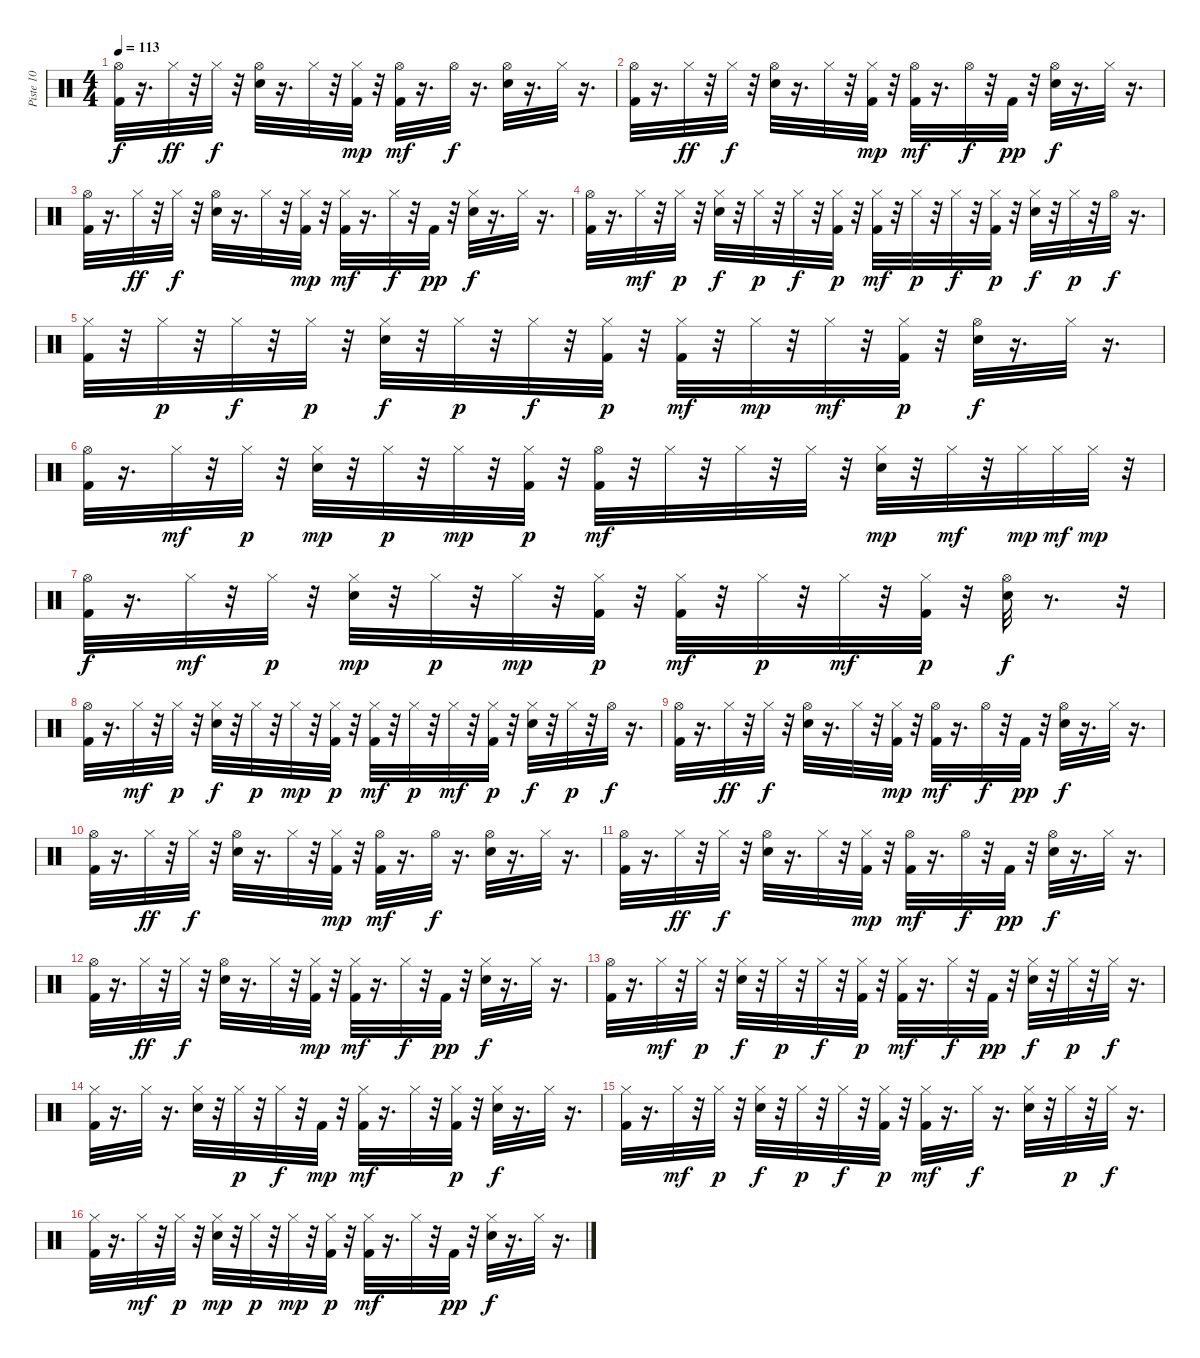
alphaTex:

\track ("Piste 10" "Piste 10") {instrument percussion}
\staff {score}
\articulation defaults
\ts (4 4)
\tempo 113
\clef neutral
\ks c
("Kick (hit) 2" "Hi-Hat (open)").32{dy f} r.16{d} "Hi-Hat (closed)".32{dy ff} r.32 "Hi-Hat (closed)".32{dy f} r.32 ("Electric Snare (hit)" "Hi-Hat (open)").32 r.16{d} "Hi-Hat (closed)".32 r.32 ("Kick (hit) 2" "Hi-Hat (closed)").32{dy mp} r.32 ("Kick (hit) 2" "Hi-Hat (open)").32{dy mf} r.16{d} "Hi-Hat (open)".32{dy f} r.16{d} ("Electric Snare (hit)" "Hi-Hat (open)").32 r.16{d} "Hi-Hat (closed)".32 r.16{d} |
("Kick (hit) 2" "Hi-Hat (open)").32 r.16{d} "Hi-Hat (closed)".32{dy ff} r.32 "Hi-Hat (closed)".32{dy f} r.32 ("Electric Snare (hit)" "Hi-Hat (open)").32 r.16{d} "Hi-Hat (closed)".32 r.32 ("Kick (hit) 2" "Hi-Hat (closed)").32{dy mp} r.32 ("Kick (hit) 2" "Hi-Hat (open)").32{dy mf} r.16{d} "Hi-Hat (open)".32{dy f} r.32 "Kick (hit) 2".32{dy pp} r.32 ("Electric Snare (hit)" "Hi-Hat (open)").32{dy f} r.16{d} "Hi-Hat (closed)".32 r.16{d} |
("Kick (hit) 2" "Hi-Hat (open)").32 r.16{d} "Hi-Hat (closed)".32{dy ff} r.32 "Hi-Hat (closed)".32{dy f} r.32 ("Electric Snare (hit)" "Hi-Hat (open)").32 r.16{d} "Hi-Hat (closed)".32 r.32 ("Kick (hit) 2" "Hi-Hat (closed)").32{dy mp} r.32 ("Kick (hit) 2" "Hi-Hat (closed)").32{dy mf} r.16{d} "Hi-Hat (closed)".32{dy f} r.32 "Kick (hit) 2".32{dy pp} r.32 ("Electric Snare (hit)" "Hi-Hat (closed)").32{dy f} r.16{d} "Hi-Hat (closed)".32 r.16{d} |
("Kick (hit) 2" "Hi-Hat (open)").32 r.16{d} "Hi-Hat (closed)".32{dy mf} r.32 "Hi-Hat (closed)".32{dy p} r.32 ("Electric Snare (hit)" "Hi-Hat (closed)").32{dy f} r.32 "Hi-Hat (closed)".32{dy p} r.32 "Hi-Hat (closed)".32{dy f} r.32 ("Kick (hit) 2" "Hi-Hat (closed)").32{dy p} r.32 ("Kick (hit) 2" "Hi-Hat (closed)").32{dy mf} r.32 "Hi-Hat (closed)".32{dy p} r.32 "Hi-Hat (closed)".32{dy f} r.32 ("Kick (hit) 2" "Hi-Hat (closed)").32{dy p} r.32 ("Electric Snare (hit)" "Hi-Hat (closed)").32{dy f} r.32 "Hi-Hat (closed)".32{dy p} r.32 "Hi-Hat (open)".32{dy f} r.16{d} |
("Kick (hit) 2" "Hi-Hat (closed)").32 r.32 "Hi-Hat (closed)".32{dy p} r.32 "Hi-Hat (closed)".32{dy f} r.32 "Hi-Hat (closed)".32{dy p} r.32 ("Electric Snare (hit)" "Hi-Hat (closed)").32{dy f} r.32 "Hi-Hat (closed)".32{dy p} r.32 "Hi-Hat (closed)".32{dy f} r.32 ("Kick (hit) 2" "Hi-Hat (closed)").32{dy p} r.32 ("Kick (hit) 2" "Hi-Hat (closed)").32{dy mf} r.32 "Hi-Hat (closed)".32{dy mp} r.32 "Hi-Hat (closed)".32{dy mf} r.32 ("Kick (hit) 2" "Hi-Hat (closed)").32{dy p} r.32 ("Electric Snare (hit)" "Hi-Hat (open)").32{dy f} r.16{d} "Hi-Hat (closed)".32 r.16{d} |
("Kick (hit) 2" "Hi-Hat (open)").32 r.16{d} "Hi-Hat (closed)".32{dy mf} r.32 "Hi-Hat (closed)".32{dy p} r.32 ("Electric Snare (hit)" "Hi-Hat (closed)").32{dy mp} r.32 "Hi-Hat (closed)".32{dy p} r.32 "Hi-Hat (closed)".32{dy mp} r.32 ("Kick (hit) 2" "Hi-Hat (closed)").32{dy p} r.32 ("Kick (hit) 2" "Hi-Hat (open)").32{dy mf} r.32 "Hi-Hat (closed)".32 r.32 "Hi-Hat (closed)".32 r.32 "Hi-Hat (closed)".32 r.32 ("Electric Snare (hit)" "Hi-Hat (closed)").32{dy mp} r.32 "Hi-Hat (closed)".32{dy mf} r.32 "Hi-Hat (closed)".32{dy mp} "Hi-Hat (closed)".32{dy mf} "Hi-Hat (closed)".32{dy mp} r.32 |
("Kick (hit) 2" "Hi-Hat (open)").32{dy f} r.16{d} "Hi-Hat (closed)".32{dy mf} r.32 "Hi-Hat (closed)".32{dy p} r.32 ("Electric Snare (hit)" "Hi-Hat (closed)").32{dy mp} r.32 "Hi-Hat (closed)".32{dy p} r.32 "Hi-Hat (closed)".32{dy mp} r.32 ("Kick (hit) 2" "Hi-Hat (closed)").32{dy p} r.32 ("Kick (hit) 2" "Hi-Hat (closed)").32{dy mf} r.32 "Hi-Hat (closed)".32{dy p} r.32 "Hi-Hat (closed)".32{dy mf} r.32 ("Kick (hit) 2" "Hi-Hat (closed)").32{dy p} r.32 ("Electric Snare (hit)" "Hi-Hat (open)").32{dy f} r.8{d} r.32 |
("Kick (hit) 2" "Hi-Hat (open)").32 r.16{d} "Hi-Hat (closed)".32{dy mf} r.32 "Hi-Hat (closed)".32{dy p} r.32 ("Electric Snare (hit)" "Hi-Hat (closed)").32{dy f} r.32 "Hi-Hat (closed)".32{dy p} r.32 "Hi-Hat (closed)".32{dy mp} r.32 ("Kick (hit) 2" "Hi-Hat (closed)").32{dy p} r.32 ("Kick (hit) 2" "Hi-Hat (closed)").32{dy mf} r.32 "Hi-Hat (closed)".32{dy p} r.32 "Hi-Hat (closed)".32{dy mf} r.32 ("Kick (hit) 2" "Hi-Hat (closed)").32{dy p} r.32 ("Electric Snare (hit)" "Hi-Hat (closed)").32{dy f} r.32 "Hi-Hat (closed)".32{dy p} r.32 "Hi-Hat (open)".32{dy f} r.16{d} |
("Kick (hit) 2" "Hi-Hat (open)").32 r.16{d} "Hi-Hat (closed)".32{dy ff} r.32 "Hi-Hat (closed)".32{dy f} r.32 ("Electric Snare (hit)" "Hi-Hat (open)").32 r.16{d} "Hi-Hat (closed)".32 r.32 ("Kick (hit) 2" "Hi-Hat (closed)").32{dy mp} r.32 ("Kick (hit) 2" "Hi-Hat (open)").32{dy mf} r.16{d} "Hi-Hat (open)".32{dy f} r.32 "Kick (hit) 2".32{dy pp} r.32 ("Electric Snare (hit)" "Hi-Hat (open)").32{dy f} r.16{d} "Hi-Hat (closed)".32 r.16{d} |
("Kick (hit) 2" "Hi-Hat (open)").32 r.16{d} "Hi-Hat (closed)".32{dy ff} r.32 "Hi-Hat (closed)".32{dy f} r.32 ("Electric Snare (hit)" "Hi-Hat (open)").32 r.16{d} "Hi-Hat (closed)".32 r.32 ("Kick (hit) 2" "Hi-Hat (closed)").32{dy mp} r.32 ("Kick (hit) 2" "Hi-Hat (open)").32{dy mf} r.16{d} "Hi-Hat (open)".32{dy f} r.16{d} ("Electric Snare (hit)" "Hi-Hat (open)").32 r.16{d} "Hi-Hat (closed)".32 r.16{d} |
("Kick (hit) 2" "Hi-Hat (open)").32 r.16{d} "Hi-Hat (closed)".32{dy ff} r.32 "Hi-Hat (closed)".32{dy f} r.32 ("Electric Snare (hit)" "Hi-Hat (open)").32 r.16{d} "Hi-Hat (closed)".32 r.32 ("Kick (hit) 2" "Hi-Hat (closed)").32{dy mp} r.32 ("Kick (hit) 2" "Hi-Hat (open)").32{dy mf} r.16{d} "Hi-Hat (open)".32{dy f} r.32 "Kick (hit) 2".32{dy pp} r.32 ("Electric Snare (hit)" "Hi-Hat (open)").32{dy f} r.16{d} "Hi-Hat (closed)".32 r.16{d} |
("Kick (hit) 2" "Hi-Hat (open)").32 r.16{d} "Hi-Hat (closed)".32{dy ff} r.32 "Hi-Hat (closed)".32{dy f} r.32 ("Electric Snare (hit)" "Hi-Hat (open)").32 r.16{d} "Hi-Hat (closed)".32 r.32 ("Kick (hit) 2" "Hi-Hat (closed)").32{dy mp} r.32 ("Kick (hit) 2" "Hi-Hat (closed)").32{dy mf} r.16{d} "Hi-Hat (closed)".32{dy f} r.32 "Kick (hit) 2".32{dy pp} r.32 ("Electric Snare (hit)" "Hi-Hat (closed)").32{dy f} r.16{d} "Hi-Hat (closed)".32 r.16{d} |
("Kick (hit) 2" "Hi-Hat (open)").32 r.16{d} "Hi-Hat (closed)".32{dy mf} r.32 "Hi-Hat (closed)".32{dy p} r.32 ("Electric Snare (hit)" "Hi-Hat (closed)").32{dy f} r.32 "Hi-Hat (closed)".32{dy p} r.32 "Hi-Hat (closed)".32{dy f} r.32 ("Kick (hit) 2" "Hi-Hat (closed)").32{dy p} r.32 ("Kick (hit) 2" "Hi-Hat (closed)").32{dy mf} r.16{d} "Hi-Hat (closed)".32{dy f} r.32 "Kick (hit) 2".32{dy pp} r.32 ("Electric Snare (hit)" "Hi-Hat (closed)").32{dy f} r.32 "Hi-Hat (closed)".32{dy p} r.32 "Hi-Hat (closed)".32{dy f} r.16{d} |
("Kick (hit) 2" "Hi-Hat (closed)").32 r.16{d} "Hi-Hat (closed)".32 r.16{d} ("Electric Snare (hit)" "Hi-Hat (closed)").32 r.32 "Hi-Hat (closed)".32{dy p} r.32 "Hi-Hat (closed)".32{dy f} r.32 "Kick (hit) 2".32{dy mp} r.32 ("Kick (hit) 2" "Hi-Hat (closed)").32{dy mf} r.16{d} "Hi-Hat (closed)".32 r.32 ("Kick (hit) 2" "Hi-Hat (closed)").32{dy p} r.32 ("Electric Snare (hit)" "Hi-Hat (closed)").32{dy f} r.16{d} "Hi-Hat (closed)".32 r.16{d} |
("Kick (hit) 2" "Hi-Hat (closed)").32 r.16{d} "Hi-Hat (closed)".32{dy mf} r.32 "Hi-Hat (closed)".32{dy p} r.32 ("Electric Snare (hit)" "Hi-Hat (closed)").32{dy f} r.32 "Hi-Hat (closed)".32{dy p} r.32 "Hi-Hat (closed)".32{dy f} r.32 ("Kick (hit) 2" "Hi-Hat (closed)").32{dy p} r.32 ("Kick (hit) 2" "Hi-Hat (closed)").32{dy mf} r.16{d} "Hi-Hat (closed)".32{dy f} r.16{d} ("Electric Snare (hit)" "Hi-Hat (closed)").32 r.32 "Hi-Hat (closed)".32{dy p} r.32 "Hi-Hat (closed)".32{dy f} r.16{d} |
("Kick (hit) 2" "Hi-Hat (closed)").32 r.16{d} "Hi-Hat (closed)".32{dy mf} r.32 "Hi-Hat (closed)".32{dy p} r.32 ("Electric Snare (hit)" "Hi-Hat (closed)").32{dy mp} r.32 "Hi-Hat (closed)".32{dy p} r.32 "Hi-Hat (closed)".32{dy mp} r.32 ("Kick (hit) 2" "Hi-Hat (closed)").32{dy p} r.32 ("Kick (hit) 2" "Hi-Hat (closed)").32{dy mf} r.16{d} "Hi-Hat (closed)".32 r.32 "Kick (hit) 2".32{dy pp} r.32 ("Electric Snare (hit)" "Hi-Hat (closed)").32{dy f} r.16{d} "Hi-Hat (closed)".32 r.16{d}
